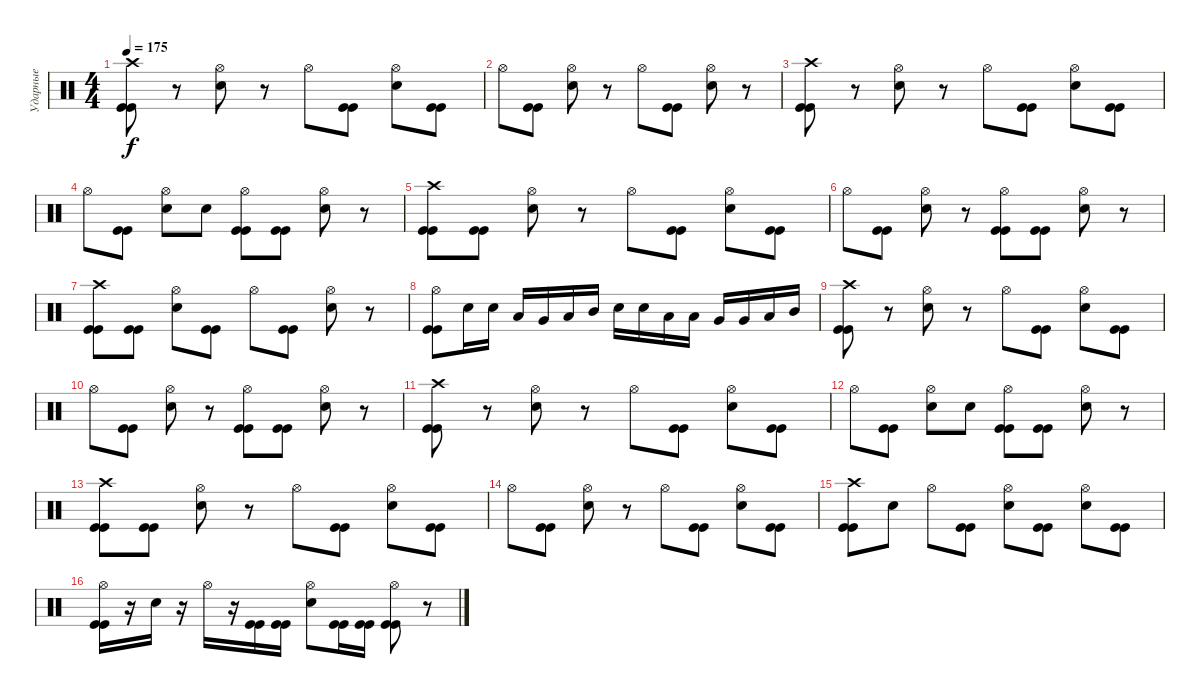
\track ("Ударные" "Ударные") {instrument percussion}
\staff {score}
\articulation defaults
\ts (4 4)
\tempo 175
\clef neutral
\ks c
("Crash high (hit)" "Kick (hit)" "Kick (hit)").8{dy f} r.8 ("Hi-Hat (open)" "Snare (hit) 2").8 r.8 "Hi-Hat (open)".8 ("Kick (hit)" "Kick (hit)").8 ("Hi-Hat (open)" "Snare (hit) 2").8 ("Kick (hit)" "Kick (hit)").8 |
"Hi-Hat (open)".8 ("Kick (hit)" "Kick (hit)").8 ("Hi-Hat (open)" "Snare (hit) 2").8 r.8 "Hi-Hat (open)".8 ("Kick (hit)" "Kick (hit)").8 ("Hi-Hat (open)" "Snare (hit) 2").8 r.8 |
("Crash high (hit)" "Kick (hit)" "Kick (hit)").8 r.8 ("Hi-Hat (open)" "Snare (hit) 2").8 r.8 "Hi-Hat (open)".8 ("Kick (hit)" "Kick (hit)").8 ("Hi-Hat (open)" "Snare (hit) 2").8 ("Kick (hit)" "Kick (hit)").8 |
"Hi-Hat (open)".8 ("Kick (hit)" "Kick (hit)").8 ("Hi-Hat (open)" "Snare (hit) 2").8 "Snare (hit) 2".8 ("Hi-Hat (open)" "Kick (hit)" "Kick (hit)").8 ("Kick (hit)" "Kick (hit)").8 ("Hi-Hat (open)" "Snare (hit) 2").8 r.8 |
("Crash high (hit)" "Kick (hit)" "Kick (hit)").8 ("Kick (hit)" "Kick (hit)").8 ("Hi-Hat (open)" "Snare (hit) 2").8 r.8 "Hi-Hat (open)".8 ("Kick (hit)" "Kick (hit)").8 ("Hi-Hat (open)" "Snare (hit) 2").8 ("Kick (hit)" "Kick (hit)").8 |
"Hi-Hat (open)".8 ("Kick (hit)" "Kick (hit)").8 ("Hi-Hat (open)" "Snare (hit) 2").8 r.8 ("Hi-Hat (open)" "Kick (hit)" "Kick (hit)").8 ("Kick (hit)" "Kick (hit)").8 ("Hi-Hat (open)" "Snare (hit) 2").8 r.8 |
("Crash high (hit)" "Kick (hit)" "Kick (hit)").8 ("Kick (hit)" "Kick (hit)").8 ("Hi-Hat (open)" "Snare (hit) 2").8 ("Kick (hit)" "Kick (hit)").8 "Hi-Hat (open)".8 ("Kick (hit)" "Kick (hit)").8 ("Hi-Hat (open)" "Snare (hit) 2").8 r.8 |
("Hi-Hat (open)" "Kick (hit)" "Kick (hit)").8 "Snare (hit) 2".16 "Snare (hit) 2".16 "Low Floor Tom (hit)".16 "Very Low Tom (hit)".16 "Low Tom (hit)".16 "Mid Tom (hit)".16 "Snare (hit) 2".16 "Snare (hit) 2".16 "Low Floor Tom (hit)".16 "Low Floor Tom (hit)".16 "Very Low Tom (hit)".16 "Very Low Tom (hit)".16 "Low Tom (hit)".16 "Mid Tom (hit)".16 |
("Crash high (hit)" "Kick (hit)" "Kick (hit)").8 r.8 ("Hi-Hat (open)" "Snare (hit) 2").8 r.8 "Hi-Hat (open)".8 ("Kick (hit)" "Kick (hit)").8 ("Hi-Hat (open)" "Snare (hit) 2").8 ("Kick (hit)" "Kick (hit)").8 |
"Hi-Hat (open)".8 ("Kick (hit)" "Kick (hit)").8 ("Hi-Hat (open)" "Snare (hit) 2").8 r.8 ("Hi-Hat (open)" "Kick (hit)" "Kick (hit)").8 ("Kick (hit)" "Kick (hit)").8 ("Hi-Hat (open)" "Snare (hit) 2").8 r.8 |
("Crash high (hit)" "Kick (hit)" "Kick (hit)").8 r.8 ("Hi-Hat (open)" "Snare (hit) 2").8 r.8 "Hi-Hat (open)".8 ("Kick (hit)" "Kick (hit)").8 ("Hi-Hat (open)" "Snare (hit) 2").8 ("Kick (hit)" "Kick (hit)").8 |
"Hi-Hat (open)".8 ("Kick (hit)" "Kick (hit)").8 ("Hi-Hat (open)" "Snare (hit) 2").8 "Snare (hit) 2".8 ("Hi-Hat (open)" "Kick (hit)" "Kick (hit)").8 ("Kick (hit)" "Kick (hit)").8 ("Hi-Hat (open)" "Snare (hit) 2").8 r.8 |
("Crash high (hit)" "Kick (hit)" "Kick (hit)").8 ("Kick (hit)" "Kick (hit)").8 ("Hi-Hat (open)" "Snare (hit) 2").8 r.8 "Hi-Hat (open)".8 ("Kick (hit)" "Kick (hit)").8 ("Hi-Hat (open)" "Snare (hit) 2").8 ("Kick (hit)" "Kick (hit)").8 |
"Hi-Hat (open)".8 ("Kick (hit)" "Kick (hit)").8 ("Hi-Hat (open)" "Snare (hit) 2").8 r.8 "Hi-Hat (open)".8 ("Kick (hit)" "Kick (hit)").8 ("Hi-Hat (open)" "Snare (hit) 2").8 ("Kick (hit)" "Kick (hit)").8 |
("Crash high (hit)" "Kick (hit)" "Kick (hit)").8 "Snare (hit) 2".8 "Hi-Hat (open)".8 ("Kick (hit)" "Kick (hit)").8 ("Hi-Hat (open)" "Snare (hit) 2").8 ("Kick (hit)" "Kick (hit)").8 ("Hi-Hat (open)" "Snare (hit) 2").8 ("Kick (hit)" "Kick (hit)").8 |
("Hi-Hat (open)" "Kick (hit)" "Kick (hit)").16 r.16 "Snare (hit) 2".16 r.16 "Hi-Hat (open)".16 r.16 ("Kick (hit)" "Kick (hit)").16 ("Kick (hit)" "Kick (hit)").16 ("Hi-Hat (open)" "Snare (hit) 2").8 ("Kick (hit)" "Kick (hit)").16 ("Kick (hit)" "Kick (hit)").16 ("Hi-Hat (open)" "Kick (hit)" "Kick (hit)").8 r.8
